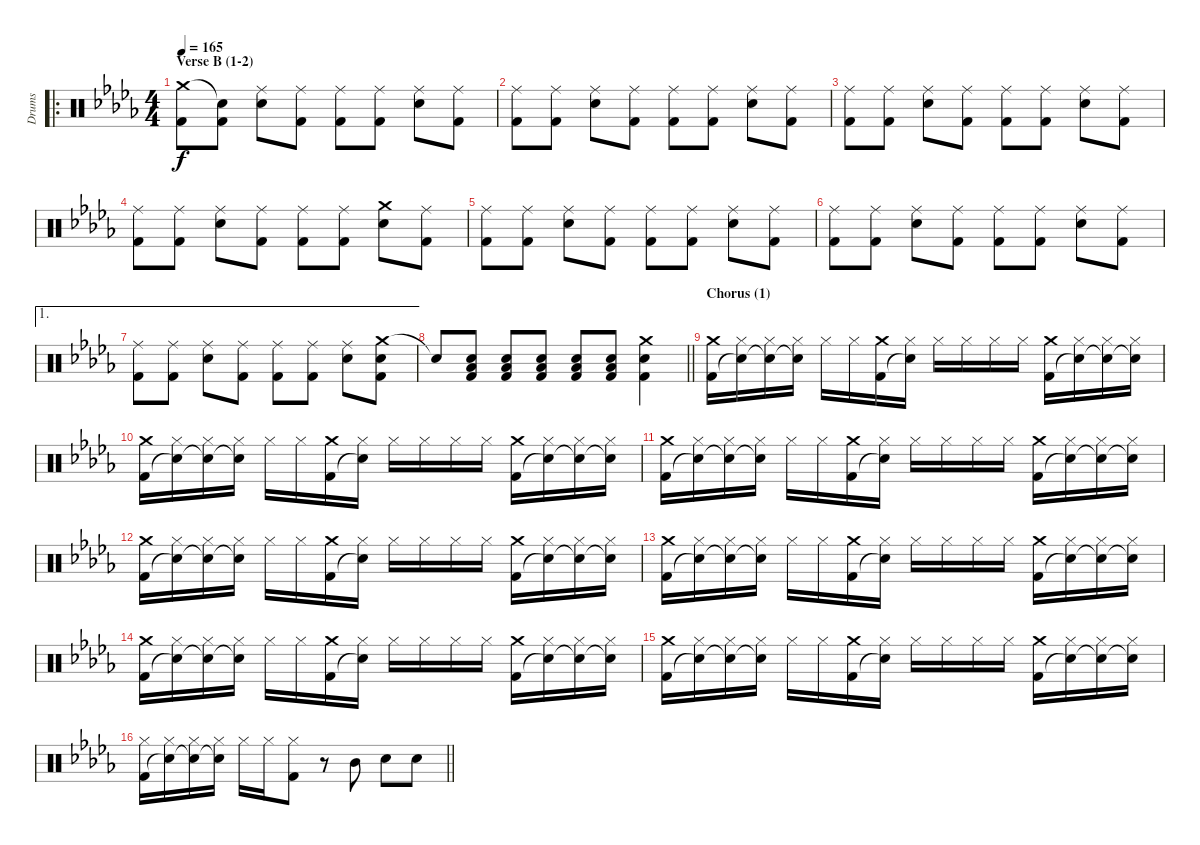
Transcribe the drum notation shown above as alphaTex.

\track ("Drums" "Drums") {instrument percussion}
\staff {score}
\articulation defaults
\ro
\ts (4 4)
\section ("" "Verse B (1-2)")
\tempo 165
\clef neutral
\ks bbminor
("Crash medium (hit)" "Kick (hit) 2").8{dy f} ("Snare (hit)"{t} "Kick (hit) 2").8 ("Ride (middle)" "Electric Snare (hit)").8 ("Ride (middle)" "Kick (hit) 2").8 ("Ride (middle)" "Kick (hit) 2").8 ("Ride (middle)" "Kick (hit) 2").8 ("Ride (middle)" "Electric Snare (hit)").8 ("Ride (middle)" "Kick (hit) 2").8 |
("Ride (middle)" "Kick (hit) 2").8 ("Ride (middle)" "Kick (hit) 2").8 ("Ride (middle)" "Electric Snare (hit)").8 ("Ride (middle)" "Kick (hit) 2").8 ("Ride (middle)" "Kick (hit) 2").8 ("Ride (middle)" "Kick (hit) 2").8 ("Ride (middle)" "Electric Snare (hit)").8 ("Ride (middle)" "Kick (hit) 2").8 |
("Ride (middle)" "Kick (hit) 2").8 ("Ride (middle)" "Kick (hit) 2").8 ("Ride (middle)" "Electric Snare (hit)").8 ("Ride (middle)" "Kick (hit) 2").8 ("Ride (middle)" "Kick (hit) 2").8 ("Ride (middle)" "Kick (hit) 2").8 ("Ride (middle)" "Electric Snare (hit)").8 ("Ride (middle)" "Kick (hit) 2").8 |
("Ride (middle)" "Kick (hit) 2").8 ("Ride (middle)" "Kick (hit) 2").8 ("Ride (middle)" "Electric Snare (hit)").8 ("Ride (middle)" "Kick (hit) 2").8 ("Ride (middle)" "Kick (hit) 2").8 ("Ride (middle)" "Kick (hit) 2").8 ("Crash medium (hit)" "Electric Snare (hit)").8 ("Ride (middle)" "Kick (hit) 2").8 |
("Ride (middle)" "Kick (hit) 2").8 ("Ride (middle)" "Kick (hit) 2").8 ("Ride (middle)" "Electric Snare (hit)").8 ("Ride (middle)" "Kick (hit) 2").8 ("Ride (middle)" "Kick (hit) 2").8 ("Ride (middle)" "Kick (hit) 2").8 ("Ride (middle)" "Electric Snare (hit)").8 ("Ride (middle)" "Kick (hit) 2").8 |
("Ride (middle)" "Kick (hit) 2").8 ("Ride (middle)" "Kick (hit) 2").8 ("Ride (middle)" "Electric Snare (hit)").8 ("Ride (middle)" "Kick (hit) 2").8 ("Ride (middle)" "Kick (hit) 2").8 ("Ride (middle)" "Kick (hit) 2").8 ("Ride (middle)" "Electric Snare (hit)").8 ("Ride (middle)" "Kick (hit) 2").8 |
\ae 1
("Ride (middle)" "Kick (hit) 2").8 ("Ride (middle)" "Kick (hit) 2").8 ("Ride (middle)" "Electric Snare (hit)").8 ("Ride (middle)" "Kick (hit) 2").8 ("Ride (middle)" "Kick (hit) 2").8 ("Ride (middle)" "Kick (hit) 2").8 ("Ride (middle)" "Electric Snare (hit)").8 ("Crash medium (hit)" "Electric Snare (hit)" "Kick (hit) 2").8 |
\barLineRight lightlight "Snare (hit)"{t}.8
("Electric Snare (hit)" "Low Floor Tom (hit)" "Kick (hit) 2").8 ("Electric Snare (hit)" "Low Floor Tom (hit)" "Kick (hit) 2").8 ("Electric Snare (hit)" "Low Floor Tom (hit)" "Kick (hit) 2").8 ("Electric Snare (hit)" "Low Floor Tom (hit)" "Kick (hit) 2").8 ("Electric Snare (hit)" "Low Floor Tom (hit)" "Kick (hit) 2").8 ("Crash medium (hit)" "Electric Snare (hit)" "Kick (hit) 2").4 |
\section ("" "Chorus (1)")
("Crash medium (hit)" "Kick (hit) 2").16 ("Hi-Hat (closed)" "Snare (hit)"{t}).16 ("Hi-Hat (closed)" "Snare (hit)"{t}).16 ("Hi-Hat (closed)" "Snare (hit)"{t}).16 "Hi-Hat (closed)".16 "Hi-Hat (closed)".16 ("Crash medium (hit)" "Kick (hit) 2").16 ("Hi-Hat (closed)" "Snare (hit)"{t}).16 "Hi-Hat (closed)".16 "Hi-Hat (closed)".16 "Hi-Hat (closed)".16 "Hi-Hat (closed)".16 ("Crash medium (hit)" "Kick (hit) 2").16 ("Hi-Hat (closed)" "Snare (hit)"{t}).16 ("Hi-Hat (closed)" "Snare (hit)"{t}).16 ("Hi-Hat (closed)" "Snare (hit)"{t}).16 |
("Crash medium (hit)" "Kick (hit) 2").16 ("Hi-Hat (closed)" "Snare (hit)"{t}).16 ("Hi-Hat (closed)" "Snare (hit)"{t}).16 ("Hi-Hat (closed)" "Snare (hit)"{t}).16 "Hi-Hat (closed)".16 "Hi-Hat (closed)".16 ("Crash medium (hit)" "Kick (hit) 2").16 ("Hi-Hat (closed)" "Snare (hit)"{t}).16 "Hi-Hat (closed)".16 "Hi-Hat (closed)".16 "Hi-Hat (closed)".16 "Hi-Hat (closed)".16 ("Crash medium (hit)" "Kick (hit) 2").16 ("Hi-Hat (closed)" "Snare (hit)"{t}).16 ("Hi-Hat (closed)" "Snare (hit)"{t}).16 ("Hi-Hat (closed)" "Snare (hit)"{t}).16 |
("Crash medium (hit)" "Kick (hit) 2").16 ("Hi-Hat (closed)" "Snare (hit)"{t}).16 ("Hi-Hat (closed)" "Snare (hit)"{t}).16 ("Hi-Hat (closed)" "Snare (hit)"{t}).16 "Hi-Hat (closed)".16 "Hi-Hat (closed)".16 ("Crash medium (hit)" "Kick (hit) 2").16 ("Hi-Hat (closed)" "Snare (hit)"{t}).16 "Hi-Hat (closed)".16 "Hi-Hat (closed)".16 "Hi-Hat (closed)".16 "Hi-Hat (closed)".16 ("Crash medium (hit)" "Kick (hit) 2").16 ("Hi-Hat (closed)" "Snare (hit)"{t}).16 ("Hi-Hat (closed)" "Snare (hit)"{t}).16 ("Hi-Hat (closed)" "Snare (hit)"{t}).16 |
("Crash medium (hit)" "Kick (hit) 2").16 ("Hi-Hat (closed)" "Snare (hit)"{t}).16 ("Hi-Hat (closed)" "Snare (hit)"{t}).16 ("Hi-Hat (closed)" "Snare (hit)"{t}).16 "Hi-Hat (closed)".16 "Hi-Hat (closed)".16 ("Crash medium (hit)" "Kick (hit) 2").16 ("Hi-Hat (closed)" "Snare (hit)"{t}).16 "Hi-Hat (closed)".16 "Hi-Hat (closed)".16 "Hi-Hat (closed)".16 "Hi-Hat (closed)".16 ("Crash medium (hit)" "Kick (hit) 2").16 ("Hi-Hat (closed)" "Snare (hit)"{t}).16 ("Hi-Hat (closed)" "Snare (hit)"{t}).16 ("Hi-Hat (closed)" "Snare (hit)"{t}).16 |
("Crash medium (hit)" "Kick (hit) 2").16 ("Hi-Hat (closed)" "Snare (hit)"{t}).16 ("Hi-Hat (closed)" "Snare (hit)"{t}).16 ("Hi-Hat (closed)" "Snare (hit)"{t}).16 "Hi-Hat (closed)".16 "Hi-Hat (closed)".16 ("Crash medium (hit)" "Kick (hit) 2").16 ("Hi-Hat (closed)" "Snare (hit)"{t}).16 "Hi-Hat (closed)".16 "Hi-Hat (closed)".16 "Hi-Hat (closed)".16 "Hi-Hat (closed)".16 ("Crash medium (hit)" "Kick (hit) 2").16 ("Hi-Hat (closed)" "Snare (hit)"{t}).16 ("Hi-Hat (closed)" "Snare (hit)"{t}).16 ("Hi-Hat (closed)" "Snare (hit)"{t}).16 |
("Crash medium (hit)" "Kick (hit) 2").16 ("Hi-Hat (closed)" "Snare (hit)"{t}).16 ("Hi-Hat (closed)" "Snare (hit)"{t}).16 ("Hi-Hat (closed)" "Snare (hit)"{t}).16 "Hi-Hat (closed)".16 "Hi-Hat (closed)".16 ("Crash medium (hit)" "Kick (hit) 2").16 ("Hi-Hat (closed)" "Snare (hit)"{t}).16 "Hi-Hat (closed)".16 "Hi-Hat (closed)".16 "Hi-Hat (closed)".16 "Hi-Hat (closed)".16 ("Crash medium (hit)" "Kick (hit) 2").16 ("Hi-Hat (closed)" "Snare (hit)"{t}).16 ("Hi-Hat (closed)" "Snare (hit)"{t}).16 ("Hi-Hat (closed)" "Snare (hit)"{t}).16 |
("Crash medium (hit)" "Kick (hit) 2").16 ("Hi-Hat (closed)" "Snare (hit)"{t}).16 ("Hi-Hat (closed)" "Snare (hit)"{t}).16 ("Hi-Hat (closed)" "Snare (hit)"{t}).16 "Hi-Hat (closed)".16 "Hi-Hat (closed)".16 ("Crash medium (hit)" "Kick (hit) 2").16 ("Hi-Hat (closed)" "Snare (hit)"{t}).16 "Hi-Hat (closed)".16 "Hi-Hat (closed)".16 "Hi-Hat (closed)".16 "Hi-Hat (closed)".16 ("Crash medium (hit)" "Kick (hit) 2").16 ("Hi-Hat (closed)" "Snare (hit)"{t}).16 ("Hi-Hat (closed)" "Snare (hit)"{t}).16 ("Hi-Hat (closed)" "Snare (hit)"{t}).16 |
\barLineRight lightlight
("Hi-Hat (closed)" "Kick (hit) 2").16 ("Hi-Hat (closed)" "Snare (hit)"{t}).16 ("Hi-Hat (closed)" "Snare (hit)"{t}).16 ("Hi-Hat (closed)" "Snare (hit)"{t}).16 "Hi-Hat (closed)".16 "Hi-Hat (closed)".16 ("Hi-Hat (closed)" "Kick (hit) 2").8 r.8 "Mid Tom (hit)".8 "Electric Snare (hit)".8 "Electric Snare (hit)".8
